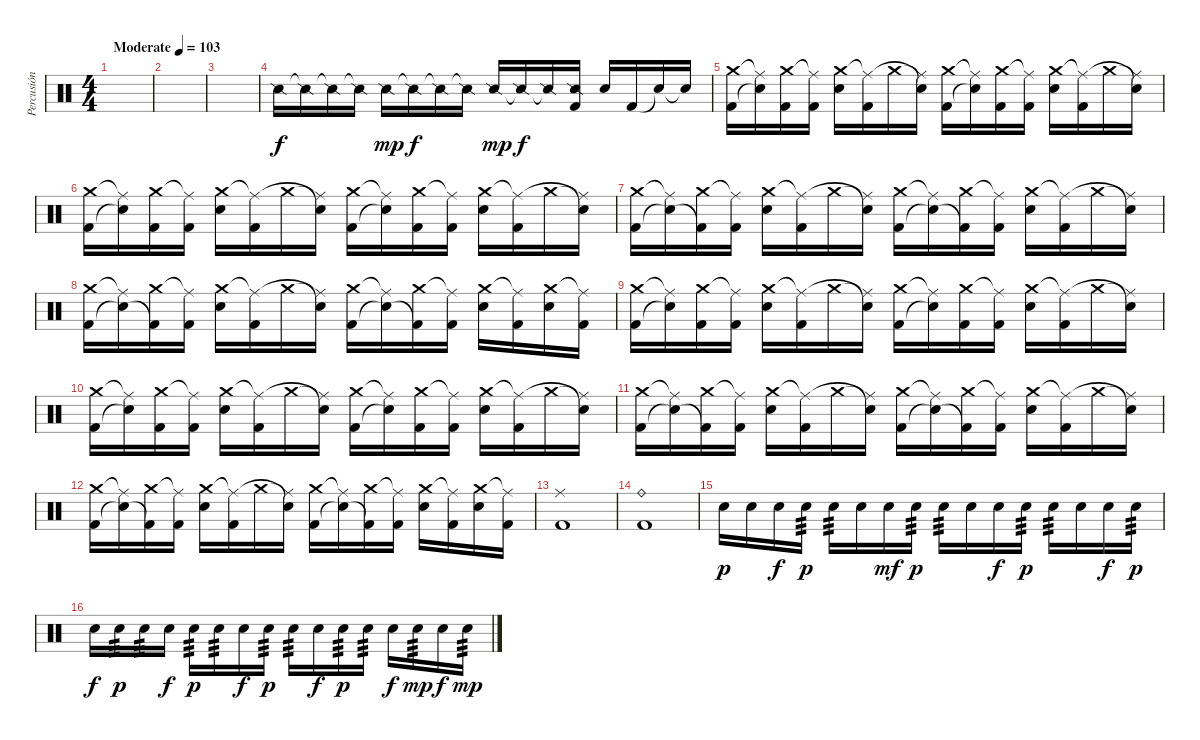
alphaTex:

\track ("Percusión" "Percusión") {instrument percussion}
\staff {score}
\articulation defaults
\ts (4 4)
\tempo (103 "Moderate")
\clef neutral
\ks c
|
|
|
"Snare (side stick) 2".16 "Snare (side stick) 2"{t}.16{dy f} "Snare (side stick) 2"{t}.16 "Snare (side stick) 2"{t}.16 "Snare (side stick) 2".16{dy mp} "Snare (side stick) 2"{t}.16{dy f} "Snare (side stick) 2"{t}.16 "Snare (side stick) 2"{t}.16 "Snare (side stick) 2".16{dy mp} "Snare (side stick) 2"{t}.16{dy f} "Snare (side stick) 2"{t}.16 ("Kick (hit) 2" "Snare (side stick) 2").16 "Electric Snare (hit)".16 "Kick (hit) 2".16 "Snare (hit)"{t}.16 "Snare (hit)"{t}.16 |
("Kick (hit) 2" "Crash medium (hit)").16 ("Snare (hit)"{t} "Ride (middle)"{t}).16 ("Kick (hit) 2" "Crash medium (hit)").16 ("Kick (hit) 2" "Ride (middle)"{t}).16 ("Electric Snare (hit)" "Crash medium (hit)").16 ("Kick (hit) 2" "Ride (middle)"{t}).16 "Crash medium (hit)".16 ("Snare (hit)"{t} "Ride (middle)"{t}).16 ("Kick (hit) 2" "Crash medium (hit)").16 ("Snare (hit)"{t} "Ride (middle)"{t}).16 ("Kick (hit) 2" "Crash medium (hit)").16 ("Kick (hit) 2" "Ride (middle)"{t}).16 ("Electric Snare (hit)" "Crash medium (hit)").16 ("Kick (hit) 2" "Ride (middle)"{t}).16 "Crash medium (hit)".16 ("Snare (hit)"{t} "Ride (middle)"{t}).16 |
("Kick (hit) 2" "Crash medium (hit)").16 ("Snare (hit)"{t} "Ride (middle)"{t}).16 ("Kick (hit) 2" "Crash medium (hit)").16 ("Kick (hit) 2" "Ride (middle)"{t}).16 ("Electric Snare (hit)" "Crash medium (hit)").16 ("Kick (hit) 2" "Ride (middle)"{t}).16 "Crash medium (hit)".16 ("Snare (hit)"{t} "Ride (middle)"{t}).16 ("Kick (hit) 2" "Crash medium (hit)").16 ("Snare (hit)"{t} "Ride (middle)"{t}).16 ("Kick (hit) 2" "Crash medium (hit)").16 ("Kick (hit) 2" "Ride (middle)"{t}).16 ("Electric Snare (hit)" "Crash medium (hit)").16 ("Kick (hit) 2" "Ride (middle)"{t}).16 "Crash medium (hit)".16 ("Snare (hit)"{t} "Ride (middle)"{t}).16 |
("Kick (hit) 2" "Crash medium (hit)").16 ("Snare (hit)"{t} "Ride (middle)"{t}).16 ("Kick (hit) 2"{t} "Crash medium (hit)").16 ("Kick (hit) 2" "Ride (middle)"{t}).16 ("Electric Snare (hit)" "Crash medium (hit)").16 ("Kick (hit) 2" "Ride (middle)"{t}).16 "Crash medium (hit)".16 ("Snare (hit)"{t} "Ride (middle)"{t}).16 ("Kick (hit) 2" "Crash medium (hit)").16 ("Snare (hit)"{t} "Ride (middle)"{t}).16 ("Kick (hit) 2"{t} "Crash medium (hit)").16 ("Kick (hit) 2" "Ride (middle)"{t}).16 ("Electric Snare (hit)" "Crash medium (hit)").16 ("Kick (hit) 2" "Ride (middle)"{t}).16 "Crash medium (hit)".16 ("Snare (hit)"{t} "Ride (middle)"{t}).16 |
("Kick (hit) 2" "Crash medium (hit)").16 ("Snare (hit)"{t} "Ride (middle)"{t}).16 ("Kick (hit) 2"{t} "Crash medium (hit)").16 ("Kick (hit) 2" "Ride (middle)"{t}).16 ("Electric Snare (hit)" "Crash medium (hit)").16 ("Kick (hit) 2" "Ride (middle)"{t}).16 "Crash medium (hit)".16 ("Snare (hit)"{t} "Ride (middle)"{t}).16 ("Kick (hit) 2" "Crash medium (hit)").16 ("Snare (hit)"{t} "Ride (middle)"{t}).16 ("Kick (hit) 2"{t} "Crash medium (hit)").16 ("Kick (hit) 2" "Ride (middle)"{t}).16 ("Electric Snare (hit)" "Crash medium (hit)").16 ("Kick (hit) 2" "Ride (middle)"{t}).16 ("Electric Snare (hit)" "Crash medium (hit)").16 ("Kick (hit) 2" "Ride (middle)"{t}).16 |
("Kick (hit) 2" "Crash medium (hit)").16 ("Snare (hit)"{t} "Ride (middle)"{t}).16 ("Kick (hit) 2" "Crash medium (hit)").16 ("Kick (hit) 2" "Ride (middle)"{t}).16 ("Electric Snare (hit)" "Crash medium (hit)").16 ("Kick (hit) 2" "Ride (middle)"{t}).16 "Crash medium (hit)".16 ("Snare (hit)"{t} "Ride (middle)"{t}).16 ("Kick (hit) 2" "Crash medium (hit)").16 ("Snare (hit)"{t} "Ride (middle)"{t}).16 ("Kick (hit) 2" "Crash medium (hit)").16 ("Kick (hit) 2" "Ride (middle)"{t}).16 ("Electric Snare (hit)" "Crash medium (hit)").16 ("Kick (hit) 2" "Ride (middle)"{t}).16 "Crash medium (hit)".16 ("Snare (hit)"{t} "Ride (middle)"{t}).16 |
("Kick (hit) 2" "Crash medium (hit)").16 ("Snare (hit)"{t} "Ride (middle)"{t}).16 ("Kick (hit) 2" "Crash medium (hit)").16 ("Kick (hit) 2" "Ride (middle)"{t}).16 ("Electric Snare (hit)" "Crash medium (hit)").16 ("Kick (hit) 2" "Ride (middle)"{t}).16 "Crash medium (hit)".16 ("Snare (hit)"{t} "Ride (middle)"{t}).16 ("Kick (hit) 2" "Crash medium (hit)").16 ("Snare (hit)"{t} "Ride (middle)"{t}).16 ("Kick (hit) 2" "Crash medium (hit)").16 ("Kick (hit) 2" "Ride (middle)"{t}).16 ("Electric Snare (hit)" "Crash medium (hit)").16 ("Kick (hit) 2" "Ride (middle)"{t}).16 "Crash medium (hit)".16 ("Snare (hit)"{t} "Ride (middle)"{t}).16 |
("Kick (hit) 2" "Crash medium (hit)").16 ("Snare (hit)"{t} "Ride (middle)"{t}).16 ("Kick (hit) 2"{t} "Crash medium (hit)").16 ("Kick (hit) 2" "Ride (middle)"{t}).16 ("Electric Snare (hit)" "Crash medium (hit)").16 ("Kick (hit) 2" "Ride (middle)"{t}).16 "Crash medium (hit)".16 ("Snare (hit)"{t} "Ride (middle)"{t}).16 ("Kick (hit) 2" "Crash medium (hit)").16 ("Snare (hit)"{t} "Ride (middle)"{t}).16 ("Kick (hit) 2"{t} "Crash medium (hit)").16 ("Kick (hit) 2" "Ride (middle)"{t}).16 ("Electric Snare (hit)" "Crash medium (hit)").16 ("Kick (hit) 2" "Ride (middle)"{t}).16 "Crash medium (hit)".16 ("Snare (hit)"{t} "Ride (middle)"{t}).16 |
("Kick (hit) 2" "Crash medium (hit)").16 ("Snare (hit)"{t} "Ride (middle)"{t}).16 ("Kick (hit) 2"{t} "Crash medium (hit)").16 ("Kick (hit) 2" "Ride (middle)"{t}).16 ("Electric Snare (hit)" "Crash medium (hit)").16 ("Kick (hit) 2" "Ride (middle)"{t}).16 "Crash medium (hit)".16 ("Snare (hit)"{t} "Ride (middle)"{t}).16 ("Kick (hit) 2" "Crash medium (hit)").16 ("Snare (hit)"{t} "Ride (middle)"{t}).16 ("Kick (hit) 2"{t} "Crash medium (hit)").16 ("Kick (hit) 2" "Ride (middle)"{t}).16 ("Electric Snare (hit)" "Crash medium (hit)").16 ("Kick (hit) 2" "Ride (middle)"{t}).16 ("Electric Snare (hit)" "Crash medium (hit)").16 ("Kick (hit) 2" "Ride (middle)"{t}).16 |
("Ride (middle)" "Kick (hit) 2").1 |
("Ride (bell)" "Kick (hit) 2").1 |
"Electric Snare (hit)".16{dy p} "Electric Snare (hit)".16 "Electric Snare (hit)".16{dy f} "Electric Snare (hit)".16{tp 3 dy p} "Electric Snare (hit)".16{tp 3} "Electric Snare (hit)".16 "Electric Snare (hit)".16{dy mf} "Electric Snare (hit)".16{tp 3 dy p} "Electric Snare (hit)".16{tp 3} "Electric Snare (hit)".16 "Electric Snare (hit)".16{dy f} "Electric Snare (hit)".16{tp 3 dy p} "Electric Snare (hit)".16{tp 3} "Electric Snare (hit)".16 "Electric Snare (hit)".16{dy f} "Electric Snare (hit)".16{tp 3 dy p} |
"Electric Snare (hit)".16{dy f} "Electric Snare (hit)".16{tp 3 dy p} "Electric Snare (hit)".16{tp 3} "Electric Snare (hit)".16{dy f} "Electric Snare (hit)".16{tp 3 dy p} "Electric Snare (hit)".16{tp 3} "Electric Snare (hit)".16{dy f} "Electric Snare (hit)".16{tp 3 dy p} "Electric Snare (hit)".16{tp 3} "Electric Snare (hit)".16{dy f} "Electric Snare (hit)".16{tp 3 dy p} "Electric Snare (hit)".16{tp 3} "Electric Snare (hit)".16{dy f} "Electric Snare (hit)".16{tp 3 dy mp} "Electric Snare (hit)".16{dy f} "Electric Snare (hit)".16{tp 3 dy mp}
